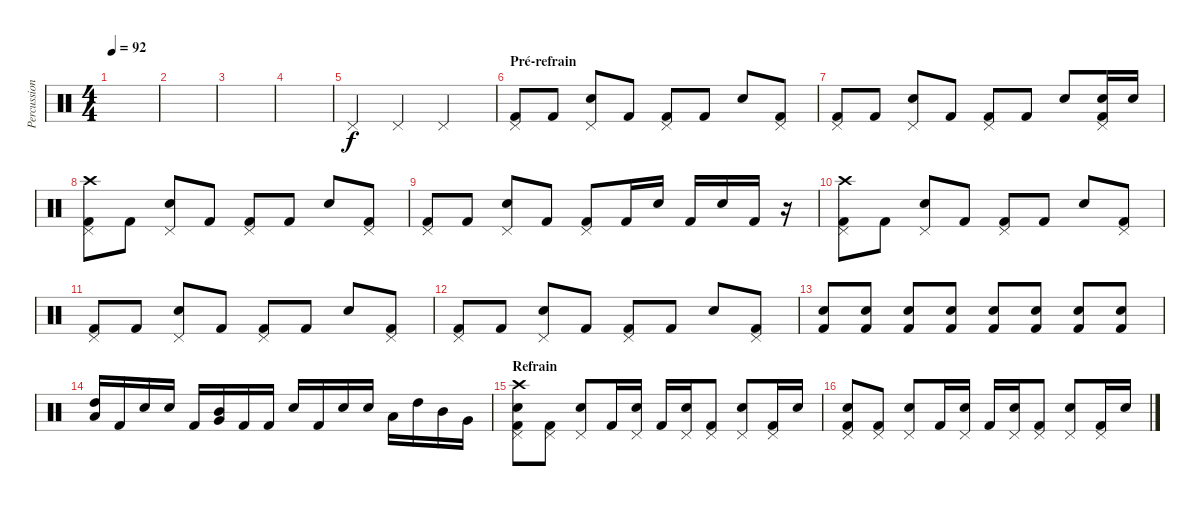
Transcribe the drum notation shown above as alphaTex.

\track ("Percussions" "Percussion") {instrument percussion}
\staff {score}
\articulation defaults
\ts (4 4)
\tempo 92
\clef neutral
\ks c
|
|
|
|
"Pedal Hi-Hat (hit)".4 "Pedal Hi-Hat (hit)".4 "Pedal Hi-Hat (hit)".2 |
\section ("" "Pré-refrain")
("Pedal Hi-Hat (hit)" "Kick (hit) 2").8 "Kick (hit) 2".8 ("Pedal Hi-Hat (hit)" "Electric Snare (hit)").8 "Kick (hit) 2".8 ("Pedal Hi-Hat (hit)" "Kick (hit) 2").8 "Kick (hit) 2".8 "Electric Snare (hit)".8 ("Pedal Hi-Hat (hit)" "Kick (hit) 2").8 |
("Pedal Hi-Hat (hit)" "Kick (hit) 2").8 "Kick (hit) 2".8 ("Pedal Hi-Hat (hit)" "Electric Snare (hit)").8 "Kick (hit) 2".8 ("Pedal Hi-Hat (hit)" "Kick (hit) 2").8 "Kick (hit) 2".8 "Electric Snare (hit)".8 ("Pedal Hi-Hat (hit)" "Electric Snare (hit)" "Kick (hit) 2").16 "Electric Snare (hit)".16 |
("Pedal Hi-Hat (hit)" "Crash high (hit)" "Kick (hit) 2").8 "Kick (hit) 2".8 ("Pedal Hi-Hat (hit)" "Electric Snare (hit)").8 "Kick (hit) 2".8 ("Pedal Hi-Hat (hit)" "Kick (hit) 2").8 "Kick (hit) 2".8 "Electric Snare (hit)".8 ("Pedal Hi-Hat (hit)" "Kick (hit) 2").8 |
("Pedal Hi-Hat (hit)" "Kick (hit) 2").8 "Kick (hit) 2".8 ("Pedal Hi-Hat (hit)" "Electric Snare (hit)").8 "Kick (hit) 2".8 ("Pedal Hi-Hat (hit)" "Kick (hit) 2").8 "Kick (hit) 2".16 "Electric Snare (hit)".16 "Kick (hit) 2".16 "Electric Snare (hit)".16 "Kick (hit) 2".16 r.16 |
("Pedal Hi-Hat (hit)" "Crash high (hit)" "Kick (hit) 2").8 "Kick (hit) 2".8 ("Pedal Hi-Hat (hit)" "Electric Snare (hit)").8 "Kick (hit) 2".8 ("Pedal Hi-Hat (hit)" "Kick (hit) 2").8 "Kick (hit) 2".8 "Electric Snare (hit)".8 ("Pedal Hi-Hat (hit)" "Kick (hit) 2").8 |
("Pedal Hi-Hat (hit)" "Kick (hit) 2").8 "Kick (hit) 2".8 ("Pedal Hi-Hat (hit)" "Electric Snare (hit)").8 "Kick (hit) 2".8 ("Pedal Hi-Hat (hit)" "Kick (hit) 2").8 "Kick (hit) 2".8 "Electric Snare (hit)".8 ("Pedal Hi-Hat (hit)" "Kick (hit) 2").8 |
("Pedal Hi-Hat (hit)" "Kick (hit) 2").8 "Kick (hit) 2".8 ("Pedal Hi-Hat (hit)" "Electric Snare (hit)").8 "Kick (hit) 2".8 ("Pedal Hi-Hat (hit)" "Kick (hit) 2").8 "Kick (hit) 2".8 "Electric Snare (hit)".8 ("Pedal Hi-Hat (hit)" "Kick (hit) 2").8 |
("Electric Snare (hit)" "Kick (hit) 2").8 ("Electric Snare (hit)" "Kick (hit) 2").8 ("Electric Snare (hit)" "Kick (hit) 2").8 ("Electric Snare (hit)" "Kick (hit) 2").8 ("Electric Snare (hit)" "Kick (hit) 2").8 ("Electric Snare (hit)" "Kick (hit) 2").8 ("Electric Snare (hit)" "Kick (hit) 2").8 ("Electric Snare (hit)" "Kick (hit) 2").8 |
("Low Tom (hit)" "High Tom (hit)").16 "Kick (hit) 2".16 "Electric Snare (hit)".16 "Electric Snare (hit)".16 "Kick (hit) 2".16 ("Mid Tom (hit)" "Very Low Tom (hit)").16 "Kick (hit) 2".16 "Kick (hit) 2".16 "Electric Snare (hit)".16 "Kick (hit) 2".16 "Electric Snare (hit)".16 "Electric Snare (hit)".16 "Low Tom (hit)".16 "High Tom (hit)".16 "Mid Tom (hit)".16 "Very Low Tom (hit)".16 |
\section ("" "Refrain")
("Pedal Hi-Hat (hit)" "Crash high (hit)" "Electric Snare (hit)" "Kick (hit) 2").8 ("Pedal Hi-Hat (hit)" "Kick (hit) 2").8 ("Pedal Hi-Hat (hit)" "Electric Snare (hit)").8 "Kick (hit) 2".16 ("Pedal Hi-Hat (hit)" "Electric Snare (hit)").16 "Kick (hit) 2".16 ("Pedal Hi-Hat (hit)" "Electric Snare (hit)").16 ("Pedal Hi-Hat (hit)" "Kick (hit) 2").8 ("Pedal Hi-Hat (hit)" "Electric Snare (hit)").8 ("Pedal Hi-Hat (hit)" "Kick (hit) 2").16 "Electric Snare (hit)".16 |
("Pedal Hi-Hat (hit)" "Electric Snare (hit)" "Kick (hit) 2").8 ("Pedal Hi-Hat (hit)" "Kick (hit) 2").8 ("Pedal Hi-Hat (hit)" "Electric Snare (hit)").8 "Kick (hit) 2".16 ("Pedal Hi-Hat (hit)" "Electric Snare (hit)").16 "Kick (hit) 2".16 ("Pedal Hi-Hat (hit)" "Electric Snare (hit)").16 ("Pedal Hi-Hat (hit)" "Kick (hit) 2").8 ("Pedal Hi-Hat (hit)" "Electric Snare (hit)").8 ("Pedal Hi-Hat (hit)" "Kick (hit) 2").16 "Electric Snare (hit)".16
